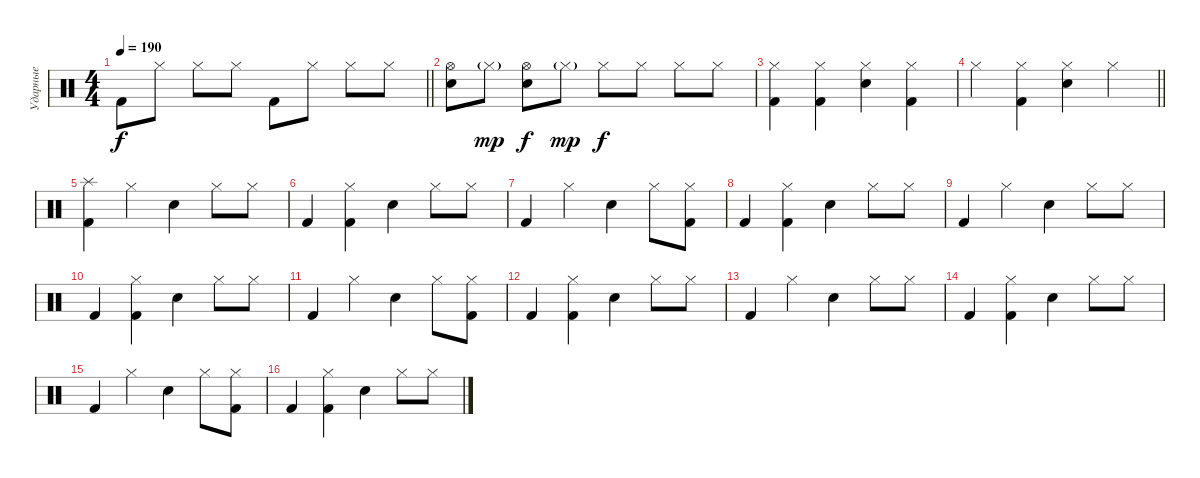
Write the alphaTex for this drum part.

\track ("Ударные" "Ударные") {instrument percussion}
\staff {score}
\articulation defaults
\ts (4 4)
\tempo 190
\clef neutral
\barLineRight lightlight
\ks c "Kick (hit) 2".8{dy f} "Hi-Hat (closed)".8 "Hi-Hat (closed)".8 "Hi-Hat (closed)".8 "Kick (hit) 2".8 "Hi-Hat (closed)".8 "Hi-Hat (closed)".8 "Hi-Hat (closed)".8
|
("Hi-Hat (open)" "Electric Snare (hit)").8 "Hi-Hat (closed)"{g}.8{dy mp} ("Hi-Hat (open)" "Electric Snare (hit)").8{dy f} "Hi-Hat (closed)"{g}.8{dy mp} "Hi-Hat (closed)".8{dy f} "Hi-Hat (closed)".8 "Hi-Hat (closed)".8 "Hi-Hat (closed)".8 |
("Hi-Hat (closed)" "Kick (hit) 2").4 ("Hi-Hat (closed)" "Kick (hit) 2").4 ("Hi-Hat (closed)" "Electric Snare (hit)").4 ("Hi-Hat (closed)" "Kick (hit) 2").4 |
\barLineRight lightlight "Hi-Hat (closed)".4
("Hi-Hat (closed)" "Kick (hit) 2").4 ("Hi-Hat (closed)" "Electric Snare (hit)").4 "Hi-Hat (closed)".4 |
\section ("" "")
("Splash (hit)" "Kick (hit) 2").4 "Hi-Hat (closed)".4 "Electric Snare (hit)".4 "Hi-Hat (closed)".8 "Hi-Hat (closed)".8 |
"Kick (hit) 2".4 ("Kick (hit) 2" "Hi-Hat (closed)").4 "Electric Snare (hit)".4 "Hi-Hat (closed)".8 "Hi-Hat (closed)".8 |
"Kick (hit) 2".4 "Hi-Hat (closed)".4 "Electric Snare (hit)".4 "Hi-Hat (closed)".8 ("Kick (hit) 2" "Hi-Hat (closed)").8 |
"Kick (hit) 2".4 ("Kick (hit) 2" "Hi-Hat (closed)").4 "Electric Snare (hit)".4 "Hi-Hat (closed)".8 "Hi-Hat (closed)".8 |
"Kick (hit) 2".4 "Hi-Hat (closed)".4 "Electric Snare (hit)".4 "Hi-Hat (closed)".8 "Hi-Hat (closed)".8 |
"Kick (hit) 2".4 ("Kick (hit) 2" "Hi-Hat (closed)").4 "Electric Snare (hit)".4 "Hi-Hat (closed)".8 "Hi-Hat (closed)".8 |
"Kick (hit) 2".4 "Hi-Hat (closed)".4 "Electric Snare (hit)".4 "Hi-Hat (closed)".8 ("Kick (hit) 2" "Hi-Hat (closed)").8 |
"Kick (hit) 2".4 ("Kick (hit) 2" "Hi-Hat (closed)").4 "Electric Snare (hit)".4 "Hi-Hat (closed)".8 "Hi-Hat (closed)".8 |
"Kick (hit) 2".4 "Hi-Hat (closed)".4 "Electric Snare (hit)".4 "Hi-Hat (closed)".8 "Hi-Hat (closed)".8 |
"Kick (hit) 2".4 ("Kick (hit) 2" "Hi-Hat (closed)").4 "Electric Snare (hit)".4 "Hi-Hat (closed)".8 "Hi-Hat (closed)".8 |
"Kick (hit) 2".4 "Hi-Hat (closed)".4 "Electric Snare (hit)".4 "Hi-Hat (closed)".8 ("Kick (hit) 2" "Hi-Hat (closed)").8 |
"Kick (hit) 2".4 ("Kick (hit) 2" "Hi-Hat (closed)").4 "Electric Snare (hit)".4 "Hi-Hat (closed)".8 "Hi-Hat (closed)".8
